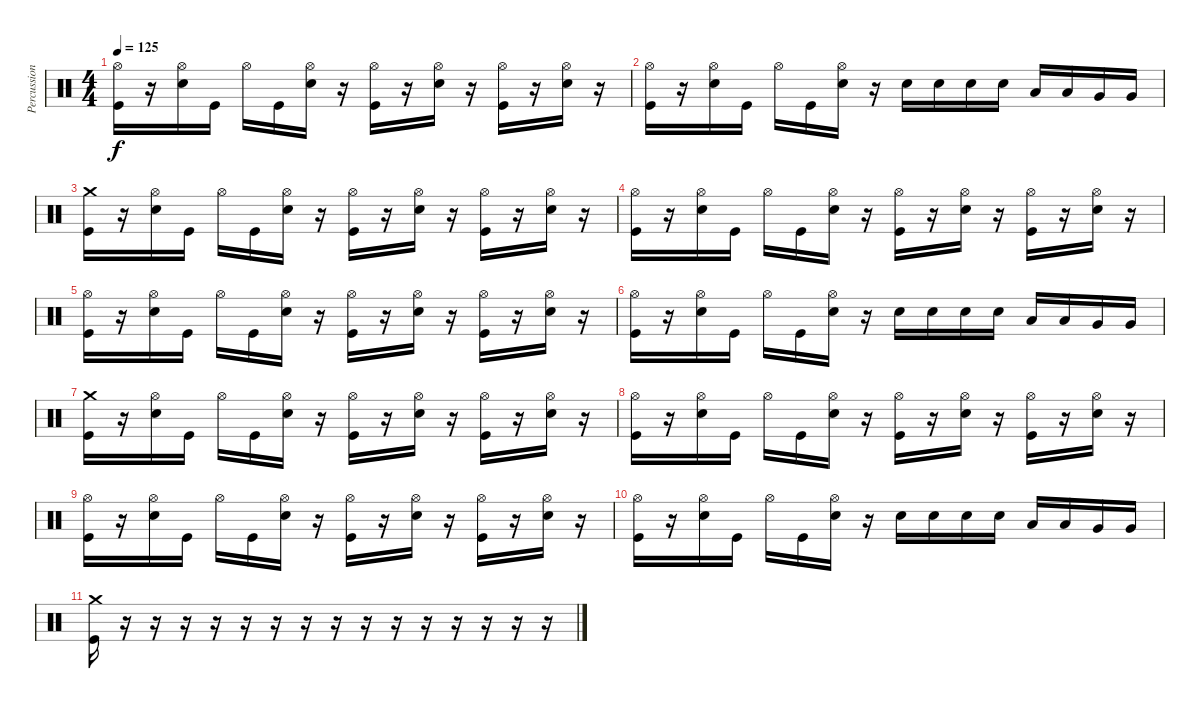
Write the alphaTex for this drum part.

\track ("Percussion" "Percussion") {instrument percussion}
\staff {score}
\articulation defaults
\ts (4 4)
\tempo 125
\clef neutral
\ks c
("Hi-Hat (open)" "Kick (hit)").16{dy f} r.16 ("Hi-Hat (open)" "Snare (hit) 2").16 "Kick (hit)".16 "Hi-Hat (open)".16 "Kick (hit)".16 ("Hi-Hat (open)" "Snare (hit) 2").16 r.16 ("Hi-Hat (open)" "Kick (hit)").16 r.16 ("Hi-Hat (open)" "Snare (hit) 2").16 r.16 ("Hi-Hat (open)" "Kick (hit)").16 r.16 ("Hi-Hat (open)" "Snare (hit) 2").16 r.16 |
("Hi-Hat (open)" "Kick (hit)").16 r.16 ("Hi-Hat (open)" "Snare (hit) 2").16 "Kick (hit)".16 "Hi-Hat (open)".16 "Kick (hit)".16 ("Hi-Hat (open)" "Snare (hit) 2").16 r.16 "Snare (hit) 2".16 "Snare (hit) 2".16 "Snare (hit) 2".16 "Snare (hit) 2".16 "Low Tom (hit)".16 "Low Tom (hit)".16 "Very Low Tom (hit)".16 "Very Low Tom (hit)".16 |
("Crash medium (hit)" "Kick (hit)").16 r.16 ("Hi-Hat (open)" "Snare (hit) 2").16 "Kick (hit)".16 "Hi-Hat (open)".16 "Kick (hit)".16 ("Hi-Hat (open)" "Snare (hit) 2").16 r.16 ("Hi-Hat (open)" "Kick (hit)").16 r.16 ("Hi-Hat (open)" "Snare (hit) 2").16 r.16 ("Hi-Hat (open)" "Kick (hit)").16 r.16 ("Hi-Hat (open)" "Snare (hit) 2").16 r.16 |
("Hi-Hat (open)" "Kick (hit)").16 r.16 ("Hi-Hat (open)" "Snare (hit) 2").16 "Kick (hit)".16 "Hi-Hat (open)".16 "Kick (hit)".16 ("Hi-Hat (open)" "Snare (hit) 2").16 r.16 ("Hi-Hat (open)" "Kick (hit)").16 r.16 ("Hi-Hat (open)" "Snare (hit) 2").16 r.16 ("Hi-Hat (open)" "Kick (hit)").16 r.16 ("Hi-Hat (open)" "Snare (hit) 2").16 r.16 |
("Hi-Hat (open)" "Kick (hit)").16 r.16 ("Hi-Hat (open)" "Snare (hit) 2").16 "Kick (hit)".16 "Hi-Hat (open)".16 "Kick (hit)".16 ("Hi-Hat (open)" "Snare (hit) 2").16 r.16 ("Hi-Hat (open)" "Kick (hit)").16 r.16 ("Hi-Hat (open)" "Snare (hit) 2").16 r.16 ("Hi-Hat (open)" "Kick (hit)").16 r.16 ("Hi-Hat (open)" "Snare (hit) 2").16 r.16 |
("Hi-Hat (open)" "Kick (hit)").16 r.16 ("Hi-Hat (open)" "Snare (hit) 2").16 "Kick (hit)".16 "Hi-Hat (open)".16 "Kick (hit)".16 ("Hi-Hat (open)" "Snare (hit) 2").16 r.16 "Snare (hit) 2".16 "Snare (hit) 2".16 "Snare (hit) 2".16 "Snare (hit) 2".16 "Low Tom (hit)".16 "Low Tom (hit)".16 "Very Low Tom (hit)".16 "Very Low Tom (hit)".16 |
("Crash medium (hit)" "Kick (hit)").16 r.16 ("Hi-Hat (open)" "Snare (hit) 2").16 "Kick (hit)".16 "Hi-Hat (open)".16 "Kick (hit)".16 ("Hi-Hat (open)" "Snare (hit) 2").16 r.16 ("Hi-Hat (open)" "Kick (hit)").16 r.16 ("Hi-Hat (open)" "Snare (hit) 2").16 r.16 ("Hi-Hat (open)" "Kick (hit)").16 r.16 ("Hi-Hat (open)" "Snare (hit) 2").16 r.16 |
("Hi-Hat (open)" "Kick (hit)").16 r.16 ("Hi-Hat (open)" "Snare (hit) 2").16 "Kick (hit)".16 "Hi-Hat (open)".16 "Kick (hit)".16 ("Hi-Hat (open)" "Snare (hit) 2").16 r.16 ("Hi-Hat (open)" "Kick (hit)").16 r.16 ("Hi-Hat (open)" "Snare (hit) 2").16 r.16 ("Hi-Hat (open)" "Kick (hit)").16 r.16 ("Hi-Hat (open)" "Snare (hit) 2").16 r.16 |
("Hi-Hat (open)" "Kick (hit)").16 r.16 ("Hi-Hat (open)" "Snare (hit) 2").16 "Kick (hit)".16 "Hi-Hat (open)".16 "Kick (hit)".16 ("Hi-Hat (open)" "Snare (hit) 2").16 r.16 ("Hi-Hat (open)" "Kick (hit)").16 r.16 ("Hi-Hat (open)" "Snare (hit) 2").16 r.16 ("Hi-Hat (open)" "Kick (hit)").16 r.16 ("Hi-Hat (open)" "Snare (hit) 2").16 r.16 |
("Hi-Hat (open)" "Kick (hit)").16 r.16 ("Hi-Hat (open)" "Snare (hit) 2").16 "Kick (hit)".16 "Hi-Hat (open)".16 "Kick (hit)".16 ("Hi-Hat (open)" "Snare (hit) 2").16 r.16 "Snare (hit) 2".16 "Snare (hit) 2".16 "Snare (hit) 2".16 "Snare (hit) 2".16 "Low Tom (hit)".16 "Low Tom (hit)".16 "Very Low Tom (hit)".16 "Very Low Tom (hit)".16 |
("Crash medium (hit)" "Kick (hit)").16 r.16 r.16 r.16 r.16 r.16 r.16 r.16 r.16 r.16 r.16 r.16 r.16 r.16 r.16 r.16
